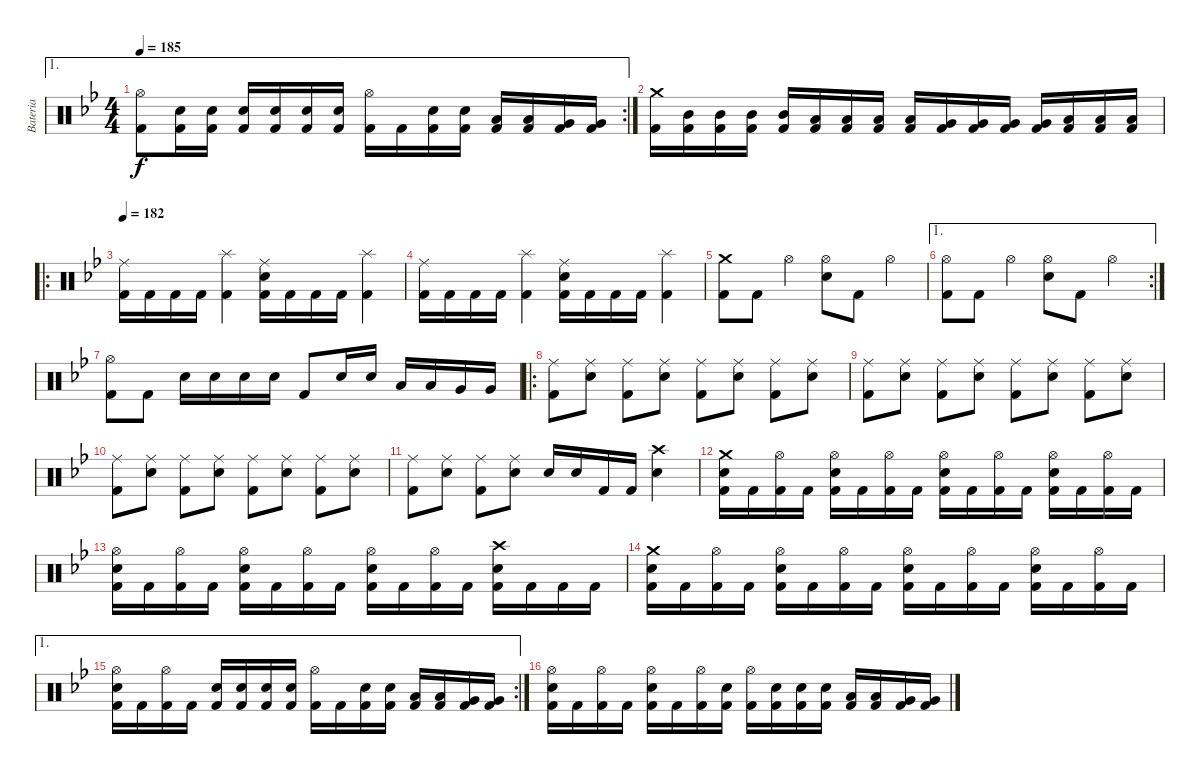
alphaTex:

\track ("Bateria" "Bateria") {instrument percussion}
\staff {score}
\articulation defaults
\ae 1
\rc 2
\ts (4 4)
\tempo 185
\clef neutral
\ks gminor
("Hi-Hat (open)" "Kick (hit) 2").8{dy f} ("Electric Snare (hit)" "Kick (hit) 2").16 ("Electric Snare (hit)" "Kick (hit) 2").16 ("Electric Snare (hit)" "Kick (hit) 2").16 ("Electric Snare (hit)" "Kick (hit) 2").16 ("Electric Snare (hit)" "Kick (hit) 2").16 ("Electric Snare (hit)" "Kick (hit) 2").16 ("Hi-Hat (open)" "Kick (hit) 2").16 "Kick (hit) 2".16 ("Electric Snare (hit)" "Kick (hit) 2").16 ("Electric Snare (hit)" "Kick (hit) 2").16 ("Low Tom (hit)" "Kick (hit) 2").16 ("Low Tom (hit)" "Kick (hit) 2").16 ("Very Low Tom (hit)" "Kick (hit) 2").16 ("Very Low Tom (hit)" "Kick (hit) 2").16 |
("Crash medium (hit)" "Kick (hit) 2").16 ("Mid Tom (hit)" "Kick (hit) 2").16 ("Mid Tom (hit)" "Kick (hit) 2").16 ("Mid Tom (hit)" "Kick (hit) 2").16 ("Mid Tom (hit)" "Kick (hit) 2").16 ("Low Tom (hit)" "Kick (hit) 2").16 ("Low Tom (hit)" "Kick (hit) 2").16 ("Low Tom (hit)" "Kick (hit) 2").16 ("Low Tom (hit)" "Kick (hit) 2").16 ("Very Low Tom (hit)" "Kick (hit) 2").16 ("Very Low Tom (hit)" "Kick (hit) 2").16 ("Very Low Tom (hit)" "Kick (hit) 2").16 ("Very Low Tom (hit)" "Kick (hit) 2").16 ("Low Floor Tom (hit)" "Kick (hit) 2").16 ("Low Floor Tom (hit)" "Kick (hit) 2").16 ("Low Floor Tom (hit)" "Kick (hit) 2").16 |
\ro
\tempo 182
("Ride (middle)" "Kick (hit) 2").16 "Kick (hit) 2".16 "Kick (hit) 2".16 "Kick (hit) 2".16 ("Splash (hit)" "Kick (hit) 2").4 ("Ride (middle)" "Electric Snare (hit)" "Kick (hit) 2").16 "Kick (hit) 2".16 "Kick (hit) 2".16 "Kick (hit) 2".16 ("Splash (hit)" "Kick (hit) 2").4 |
("Ride (middle)" "Kick (hit) 2").16 "Kick (hit) 2".16 "Kick (hit) 2".16 "Kick (hit) 2".16 ("Splash (hit)" "Kick (hit) 2").4 ("Ride (middle)" "Electric Snare (hit)" "Kick (hit) 2").16 "Kick (hit) 2".16 "Kick (hit) 2".16 "Kick (hit) 2".16 ("Splash (hit)" "Kick (hit) 2").4 |
("Crash medium (hit)" "Kick (hit) 2").8 "Kick (hit) 2".8 "Hi-Hat (open)".4 ("Hi-Hat (open)" "Electric Snare (hit)").8 "Kick (hit) 2".8 "Hi-Hat (open)".4 |
\ae 1
\rc 2
("Hi-Hat (open)" "Kick (hit) 2").8 "Kick (hit) 2".8 "Hi-Hat (open)".4 ("Hi-Hat (open)" "Electric Snare (hit)").8 "Kick (hit) 2".8 "Hi-Hat (open)".4 |
("Hi-Hat (open)" "Kick (hit) 2").8 "Kick (hit) 2".8 "Electric Snare (hit)".16 "Electric Snare (hit)".16 "Electric Snare (hit)".16 "Electric Snare (hit)".16 "Kick (hit) 2".8 "Electric Snare (hit)".16 "Electric Snare (hit)".16 "Low Tom (hit)".16 "Low Tom (hit)".16 "Very Low Tom (hit)".16 "Very Low Tom (hit)".16 |
\ro
("Ride (middle)" "Kick (hit) 2").8 ("Ride (middle)" "Electric Snare (hit)").8 ("Ride (middle)" "Kick (hit) 2").8 ("Ride (middle)" "Electric Snare (hit)").8 ("Ride (middle)" "Kick (hit) 2").8 ("Ride (middle)" "Electric Snare (hit)").8 ("Ride (middle)" "Kick (hit) 2").8 ("Ride (middle)" "Electric Snare (hit)").8 |
("Ride (middle)" "Kick (hit) 2").8 ("Ride (middle)" "Electric Snare (hit)").8 ("Ride (middle)" "Kick (hit) 2").8 ("Ride (middle)" "Electric Snare (hit)").8 ("Ride (middle)" "Kick (hit) 2").8 ("Ride (middle)" "Electric Snare (hit)").8 ("Ride (middle)" "Kick (hit) 2").8 ("Ride (middle)" "Electric Snare (hit)").8 |
("Ride (middle)" "Kick (hit) 2").8 ("Ride (middle)" "Electric Snare (hit)").8 ("Ride (middle)" "Kick (hit) 2").8 ("Ride (middle)" "Electric Snare (hit)").8 ("Ride (middle)" "Kick (hit) 2").8 ("Ride (middle)" "Electric Snare (hit)").8 ("Ride (middle)" "Kick (hit) 2").8 ("Ride (middle)" "Electric Snare (hit)").8 |
("Ride (middle)" "Kick (hit) 2").8 ("Ride (middle)" "Electric Snare (hit)").8 ("Ride (middle)" "Kick (hit) 2").8 ("Ride (middle)" "Electric Snare (hit)").8 "Electric Snare (hit)".16 "Electric Snare (hit)".16 "Kick (hit) 2".16 "Kick (hit) 2".16 ("Crash high (hit)" "Electric Snare (hit)").4 |
("Crash medium (hit)" "Electric Snare (hit)" "Kick (hit) 2").16 "Kick (hit) 2".16 ("Hi-Hat (open)" "Kick (hit) 2").16 "Kick (hit) 2".16 ("Hi-Hat (open)" "Electric Snare (hit)" "Kick (hit) 2").16 "Kick (hit) 2".16 ("Hi-Hat (open)" "Kick (hit) 2").16 "Kick (hit) 2".16 ("Hi-Hat (open)" "Electric Snare (hit)" "Kick (hit) 2").16 "Kick (hit) 2".16 ("Hi-Hat (open)" "Kick (hit) 2").16 "Kick (hit) 2".16 ("Hi-Hat (open)" "Electric Snare (hit)" "Kick (hit) 2").16 "Kick (hit) 2".16 ("Hi-Hat (open)" "Kick (hit) 2").16 "Kick (hit) 2".16 |
("Hi-Hat (open)" "Electric Snare (hit)" "Kick (hit) 2").16 "Kick (hit) 2".16 ("Hi-Hat (open)" "Kick (hit) 2").16 "Kick (hit) 2".16 ("Hi-Hat (open)" "Electric Snare (hit)" "Kick (hit) 2").16 "Kick (hit) 2".16 ("Hi-Hat (open)" "Kick (hit) 2").16 "Kick (hit) 2".16 ("Hi-Hat (open)" "Electric Snare (hit)" "Kick (hit) 2").16 "Kick (hit) 2".16 ("Hi-Hat (open)" "Kick (hit) 2").16 "Kick (hit) 2".16 ("Crash high (hit)" "Electric Snare (hit)" "Kick (hit) 2").16 "Kick (hit) 2".16 "Kick (hit) 2".16 "Kick (hit) 2".16 |
("Crash medium (hit)" "Electric Snare (hit)" "Kick (hit) 2").16 "Kick (hit) 2".16 ("Hi-Hat (open)" "Kick (hit) 2").16 "Kick (hit) 2".16 ("Hi-Hat (open)" "Electric Snare (hit)" "Kick (hit) 2").16 "Kick (hit) 2".16 ("Hi-Hat (open)" "Kick (hit) 2").16 "Kick (hit) 2".16 ("Hi-Hat (open)" "Electric Snare (hit)" "Kick (hit) 2").16 "Kick (hit) 2".16 ("Hi-Hat (open)" "Kick (hit) 2").16 "Kick (hit) 2".16 ("Hi-Hat (open)" "Electric Snare (hit)" "Kick (hit) 2").16 "Kick (hit) 2".16 ("Hi-Hat (open)" "Kick (hit) 2").16 "Kick (hit) 2".16 |
\ae 1
\rc 2
("Hi-Hat (open)" "Electric Snare (hit)" "Kick (hit) 2").16 "Kick (hit) 2".16 ("Hi-Hat (open)" "Kick (hit) 2").16 "Kick (hit) 2".16 ("Electric Snare (hit)" "Kick (hit) 2").16 ("Electric Snare (hit)" "Kick (hit) 2").16 ("Electric Snare (hit)" "Kick (hit) 2").16 ("Electric Snare (hit)" "Kick (hit) 2").16 ("Hi-Hat (open)" "Kick (hit) 2").16 "Kick (hit) 2".16 ("Electric Snare (hit)" "Kick (hit) 2").16 ("Electric Snare (hit)" "Kick (hit) 2").16 ("Low Tom (hit)" "Kick (hit) 2").16 ("Low Tom (hit)" "Kick (hit) 2").16 ("Very Low Tom (hit)" "Kick (hit) 2").16 ("Very Low Tom (hit)" "Kick (hit) 2").16 |
("Hi-Hat (open)" "Electric Snare (hit)" "Kick (hit) 2").16 "Kick (hit) 2".16 ("Hi-Hat (open)" "Kick (hit) 2").16 "Kick (hit) 2".16 ("Hi-Hat (open)" "Electric Snare (hit)" "Kick (hit) 2").16 "Kick (hit) 2".16 ("Hi-Hat (open)" "Kick (hit) 2").16 ("Electric Snare (hit)" "Kick (hit) 2").16 ("Hi-Hat (open)" "Kick (hit) 2").16 ("Electric Snare (hit)" "Kick (hit) 2").16 ("Electric Snare (hit)" "Kick (hit) 2").16 ("Electric Snare (hit)" "Kick (hit) 2").16 ("Low Tom (hit)" "Kick (hit) 2").16 ("Low Tom (hit)" "Kick (hit) 2").16 ("Very Low Tom (hit)" "Kick (hit) 2").16 ("Very Low Tom (hit)" "Kick (hit) 2").16
